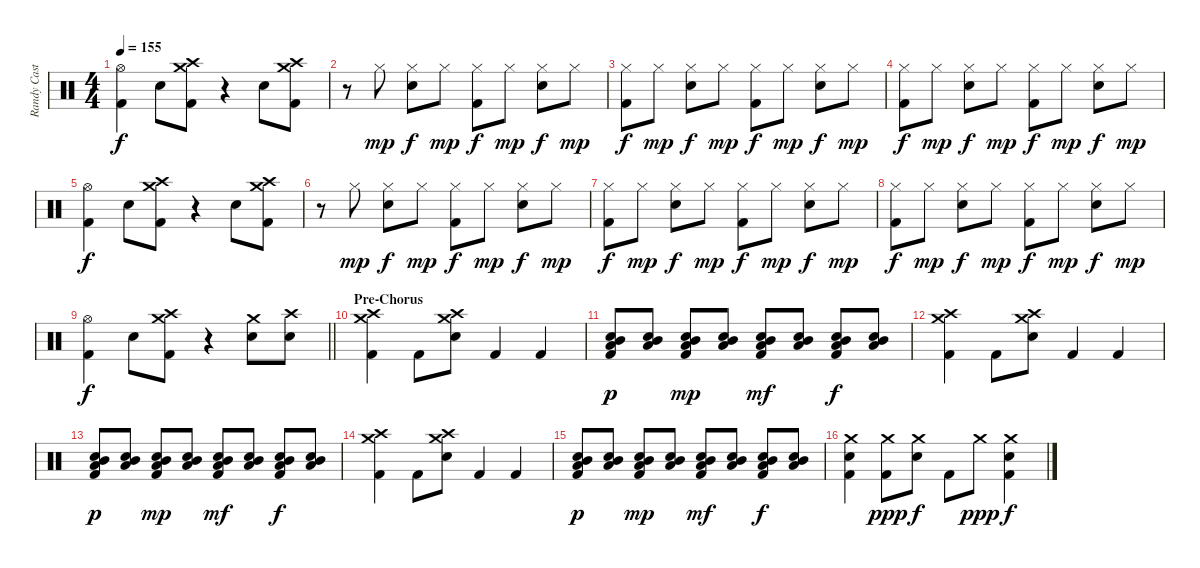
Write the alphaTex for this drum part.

\track ("Randy Castillo - Drums" "Randy Cast") {instrument percussion}
\staff {score}
\articulation defaults
\ts (4 4)
\tempo 155
\clef neutral
\ks c
("Hi-Hat (open)" "Kick (hit) 2").4{dy f} "Snare (hit) 2".8 ("Crash medium (hit)" "Crash high (hit)" "Kick (hit) 2").8 r.4 "Snare (hit) 2".8 ("Crash medium (hit)" "Crash high (hit)" "Kick (hit) 2").8 |
r.8 "Hi-Hat (closed)".8{dy mp} ("Hi-Hat (closed)" "Snare (hit) 2").8{dy f} "Hi-Hat (closed)".8{dy mp} ("Hi-Hat (closed)" "Kick (hit) 2").8{dy f} "Hi-Hat (closed)".8{dy mp} ("Hi-Hat (closed)" "Snare (hit) 2").8{dy f} "Hi-Hat (closed)".8{dy mp} |
("Hi-Hat (closed)" "Kick (hit) 2").8{dy f} "Hi-Hat (closed)".8{dy mp} ("Hi-Hat (closed)" "Snare (hit) 2").8{dy f} "Hi-Hat (closed)".8{dy mp} ("Hi-Hat (closed)" "Kick (hit) 2").8{dy f} "Hi-Hat (closed)".8{dy mp} ("Hi-Hat (closed)" "Snare (hit) 2").8{dy f} "Hi-Hat (closed)".8{dy mp} |
("Hi-Hat (closed)" "Kick (hit) 2").8{dy f} "Hi-Hat (closed)".8{dy mp} ("Hi-Hat (closed)" "Snare (hit) 2").8{dy f} "Hi-Hat (closed)".8{dy mp} ("Hi-Hat (closed)" "Kick (hit) 2").8{dy f} "Hi-Hat (closed)".8{dy mp} ("Hi-Hat (closed)" "Snare (hit) 2").8{dy f} "Hi-Hat (closed)".8{dy mp} |
("Hi-Hat (open)" "Kick (hit) 2").4{dy f} "Snare (hit) 2".8 ("Crash medium (hit)" "Crash high (hit)" "Kick (hit) 2").8 r.4 "Snare (hit) 2".8 ("Crash medium (hit)" "Crash high (hit)" "Kick (hit) 2").8 |
r.8 "Hi-Hat (closed)".8{dy mp} ("Hi-Hat (closed)" "Snare (hit) 2").8{dy f} "Hi-Hat (closed)".8{dy mp} ("Hi-Hat (closed)" "Kick (hit) 2").8{dy f} "Hi-Hat (closed)".8{dy mp} ("Hi-Hat (closed)" "Snare (hit) 2").8{dy f} "Hi-Hat (closed)".8{dy mp} |
("Hi-Hat (closed)" "Kick (hit) 2").8{dy f} "Hi-Hat (closed)".8{dy mp} ("Hi-Hat (closed)" "Snare (hit) 2").8{dy f} "Hi-Hat (closed)".8{dy mp} ("Hi-Hat (closed)" "Kick (hit) 2").8{dy f} "Hi-Hat (closed)".8{dy mp} ("Hi-Hat (closed)" "Snare (hit) 2").8{dy f} "Hi-Hat (closed)".8{dy mp} |
("Hi-Hat (closed)" "Kick (hit) 2").8{dy f} "Hi-Hat (closed)".8{dy mp} ("Hi-Hat (closed)" "Snare (hit) 2").8{dy f} "Hi-Hat (closed)".8{dy mp} ("Hi-Hat (closed)" "Kick (hit) 2").8{dy f} "Hi-Hat (closed)".8{dy mp} ("Hi-Hat (closed)" "Snare (hit) 2").8{dy f} "Hi-Hat (closed)".8{dy mp} |
\barLineRight lightlight
("Hi-Hat (open)" "Kick (hit) 2").4{dy f} "Snare (hit) 2".8 ("Crash medium (hit)" "Crash high (hit)" "Kick (hit) 2").8 r.4 ("Crash medium (hit)" "Snare (hit) 2").8 ("Crash high (hit)" "Snare (hit) 2").8 |
\section ("" "Pre-Chorus")
("Crash medium (hit)" "Crash high (hit)" "Kick (hit) 2").4 "Kick (hit) 2".8 ("Crash high (hit)" "Crash medium (hit)" "Snare (hit) 2").8 "Kick (hit) 2".4 "Kick (hit) 2".4 |
("Mid Tom (hit)" "Low Tom (hit)" "Snare (hit) 2" "Kick (hit) 2").8{dy p} ("Mid Tom (hit)" "Low Tom (hit)" "Snare (hit) 2").8 ("Mid Tom (hit)" "Low Tom (hit)" "Snare (hit) 2" "Kick (hit) 2").8{dy mp} ("Mid Tom (hit)" "Low Tom (hit)" "Snare (hit) 2").8 ("Mid Tom (hit)" "Low Tom (hit)" "Snare (hit) 2" "Kick (hit) 2").8{dy mf} ("Mid Tom (hit)" "Low Tom (hit)" "Snare (hit) 2").8 ("Mid Tom (hit)" "Low Tom (hit)" "Snare (hit) 2" "Kick (hit) 2").8{dy f} ("Mid Tom (hit)" "Low Tom (hit)" "Snare (hit) 2").8 |
("Crash medium (hit)" "Crash high (hit)" "Kick (hit) 2").4 "Kick (hit) 2".8 ("Crash high (hit)" "Crash medium (hit)" "Snare (hit) 2").8 "Kick (hit) 2".4 "Kick (hit) 2".4 |
("Mid Tom (hit)" "Low Tom (hit)" "Snare (hit) 2" "Kick (hit) 2").8{dy p} ("Mid Tom (hit)" "Low Tom (hit)" "Snare (hit) 2").8 ("Mid Tom (hit)" "Low Tom (hit)" "Snare (hit) 2" "Kick (hit) 2").8{dy mp} ("Mid Tom (hit)" "Low Tom (hit)" "Snare (hit) 2").8 ("Mid Tom (hit)" "Low Tom (hit)" "Snare (hit) 2" "Kick (hit) 2").8{dy mf} ("Mid Tom (hit)" "Low Tom (hit)" "Snare (hit) 2").8 ("Mid Tom (hit)" "Low Tom (hit)" "Snare (hit) 2" "Kick (hit) 2").8{dy f} ("Mid Tom (hit)" "Low Tom (hit)" "Snare (hit) 2").8 |
("Crash medium (hit)" "Crash high (hit)" "Kick (hit) 2").4 "Kick (hit) 2".8 ("Crash high (hit)" "Crash medium (hit)" "Snare (hit) 2").8 "Kick (hit) 2".4 "Kick (hit) 2".4 |
("Mid Tom (hit)" "Low Tom (hit)" "Snare (hit) 2" "Kick (hit) 2").8{dy p} ("Mid Tom (hit)" "Low Tom (hit)" "Snare (hit) 2").8 ("Mid Tom (hit)" "Low Tom (hit)" "Snare (hit) 2" "Kick (hit) 2").8{dy mp} ("Mid Tom (hit)" "Low Tom (hit)" "Snare (hit) 2").8 ("Mid Tom (hit)" "Low Tom (hit)" "Snare (hit) 2" "Kick (hit) 2").8{dy mf} ("Mid Tom (hit)" "Low Tom (hit)" "Snare (hit) 2").8 ("Mid Tom (hit)" "Low Tom (hit)" "Snare (hit) 2" "Kick (hit) 2").8{dy f} ("Mid Tom (hit)" "Low Tom (hit)" "Snare (hit) 2").8 |
("Crash medium (hit)" "Snare (hit) 2" "Kick (hit) 2").4 ("Crash medium (hit)" "Kick (hit) 2").8{dy ppp} ("Crash medium (hit)" "Snare (hit) 2").8{dy f} "Kick (hit) 2".8 "Crash medium (hit)".8{dy ppp} ("Crash medium (hit)" "Snare (hit) 2" "Kick (hit) 2").4{dy f}
